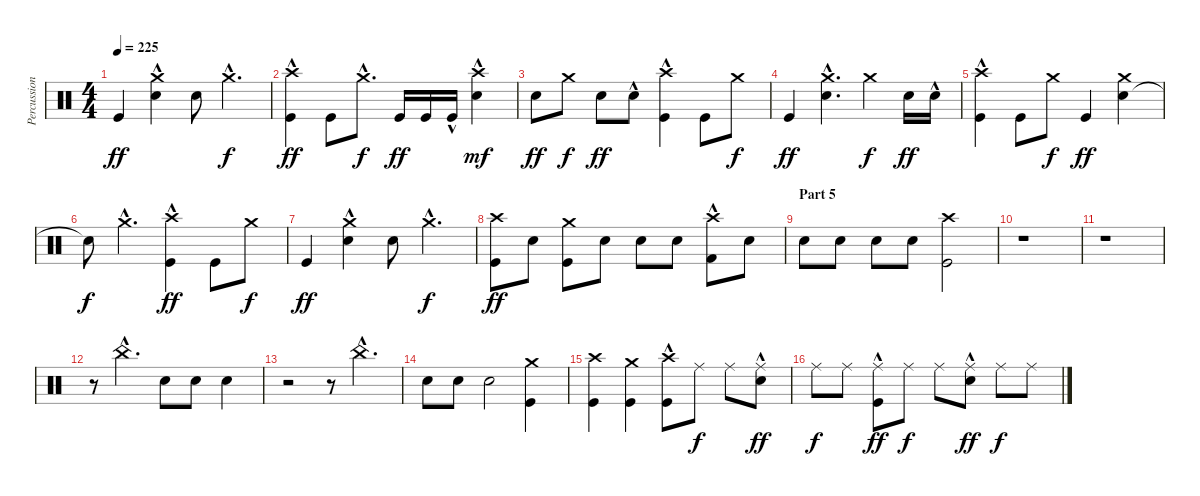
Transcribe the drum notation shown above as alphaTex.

\track ("Percussions" "Percussion") {instrument percussion}
\staff {score}
\articulation defaults
\ts (4 4)
\tempo 225
\clef neutral
\ks c "Kick (hit)".4{dy ff}
("Electric Snare (hit)" "Crash medium (hit)"{hac}).4 "Electric Snare (hit)".8 "Crash medium (hit)"{hac}.4{d dy f} |
("Kick (hit)" "Crash high (hit)"{hac}).4{dy ff} "Kick (hit)".8 "Crash medium (hit)"{hac}.8{d dy f} "Kick (hit)".16{dy ff} "Kick (hit)".16 "Kick (hit)"{hac}.16 ("Electric Snare (hit)" "Crash high (hit)"{hac}).4{dy mf} |
"Electric Snare (hit)".8{dy ff} "Crash medium (hit)".8{dy f} "Electric Snare (hit)".8{dy ff} "Electric Snare (hit)"{hac}.8 ("Kick (hit)" "Crash high (hit)"{hac}).4 "Kick (hit)".8 "Crash medium (hit)".8{dy f} |
"Kick (hit)".4{dy ff} ("Electric Snare (hit)" "Crash medium (hit)"{hac}).4{d} "Crash medium (hit)".4{dy f} "Electric Snare (hit)".16{dy ff} "Electric Snare (hit)"{hac}.16 |
("Kick (hit)" "Crash high (hit)"{hac}).4 "Kick (hit)".8 "Crash medium (hit)".8{dy f} "Kick (hit)".4{dy ff} ("Electric Snare (hit)" "Crash medium (hit)").4 |
"Snare (hit)"{t}.8{dy f} "Crash medium (hit)"{hac}.4{d} ("Kick (hit)" "Crash high (hit)"{hac}).4{dy ff} "Kick (hit)".8 "Crash medium (hit)".8{dy f} |
"Kick (hit)".4{dy ff} ("Electric Snare (hit)" "Crash medium (hit)"{hac}).4 "Electric Snare (hit)".8 "Crash medium (hit)"{hac}.4{d dy f} |
("Kick (hit)" "Crash high (hit)").8{dy ff} "Electric Snare (hit)".8 ("Kick (hit)" "Crash medium (hit)").8 "Electric Snare (hit)".8 "Electric Snare (hit)".8 "Electric Snare (hit)".8 ("Kick (hit) 2"{hac} "Crash high (hit)"{hac}).8 "Electric Snare (hit)".8 |
\section ("" "Part 5")
"Electric Snare (hit)".8 "Electric Snare (hit)".8 "Electric Snare (hit)".8 "Electric Snare (hit)".8 ("Kick (hit)" "Crash high (hit)").2 |
r.1 |
r.1 |
r.8 "China (hit)"{hac}.4{d} "Electric Snare (hit)".8 "Electric Snare (hit)".8 "Electric Snare (hit)".4 |
r.2 r.8 "China (hit)"{hac}.4{d} |
"Electric Snare (hit)".8 "Electric Snare (hit)".8 "Electric Snare (hit)".2 ("Kick (hit)" "Crash medium (hit)").4 |
("Kick (hit)" "Crash high (hit)").4 ("Kick (hit)" "Crash medium (hit)").4 ("Kick (hit)"{hac} "Crash high (hit)").8 "Ride (middle)".8{dy f} "Ride (middle)".8 ("Electric Snare (hit)"{hac} "Ride (middle)").8{dy ff} |
"Ride (middle)".8{dy f} "Ride (middle)".8 ("Kick (hit)"{hac} "Ride (middle)").8{dy ff} "Ride (middle)".8{dy f} "Ride (middle)".8 ("Electric Snare (hit)"{hac} "Ride (middle)").8{dy ff} "Ride (middle)".8{dy f} "Ride (middle)".8
